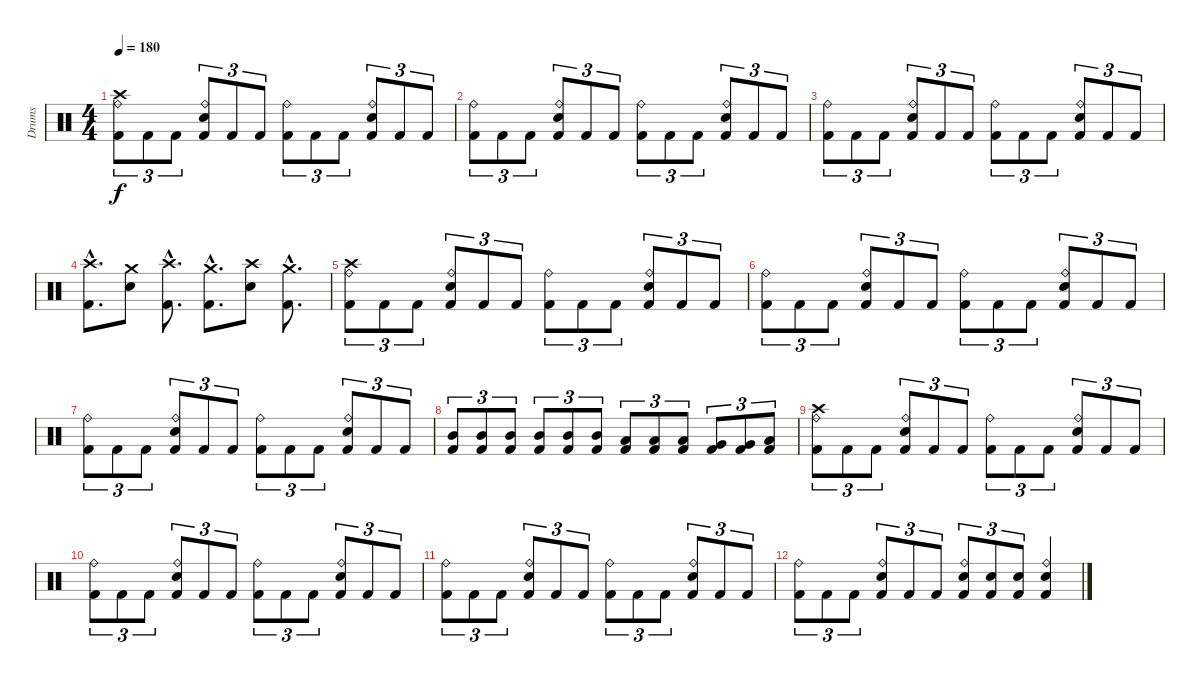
\track ("Drums" "Drums") {instrument percussion}
\staff {score}
\articulation defaults
\ts (4 4)
\tempo 180
\clef neutral
\ks c
("Kick (hit) 2" "Crash high (hit)" "Ride (bell)").8{tu (3 2) dy f} "Kick (hit) 2".8{tu (3 2)} "Kick (hit) 2".8{tu (3 2)} ("Kick (hit) 2" "Electric Snare (hit)" "Ride (bell)").8{tu (3 2)} "Kick (hit) 2".8{tu (3 2)} "Kick (hit) 2".8{tu (3 2)} ("Kick (hit) 2" "Ride (bell)").8{tu (3 2)} "Kick (hit) 2".8{tu (3 2)} "Kick (hit) 2".8{tu (3 2)} ("Kick (hit) 2" "Electric Snare (hit)" "Ride (bell)").8{tu (3 2)} "Kick (hit) 2".8{tu (3 2)} "Kick (hit) 2".8{tu (3 2)} |
("Kick (hit) 2" "Ride (bell)").8{tu (3 2)} "Kick (hit) 2".8{tu (3 2)} "Kick (hit) 2".8{tu (3 2)} ("Kick (hit) 2" "Electric Snare (hit)" "Ride (bell)").8{tu (3 2)} "Kick (hit) 2".8{tu (3 2)} "Kick (hit) 2".8{tu (3 2)} ("Kick (hit) 2" "Ride (bell)").8{tu (3 2)} "Kick (hit) 2".8{tu (3 2)} "Kick (hit) 2".8{tu (3 2)} ("Kick (hit) 2" "Electric Snare (hit)" "Ride (bell)").8{tu (3 2)} "Kick (hit) 2".8{tu (3 2)} "Kick (hit) 2".8{tu (3 2)} |
("Kick (hit) 2" "Ride (bell)").8{tu (3 2)} "Kick (hit) 2".8{tu (3 2)} "Kick (hit) 2".8{tu (3 2)} ("Kick (hit) 2" "Electric Snare (hit)" "Ride (bell)").8{tu (3 2)} "Kick (hit) 2".8{tu (3 2)} "Kick (hit) 2".8{tu (3 2)} ("Kick (hit) 2" "Ride (bell)").8{tu (3 2)} "Kick (hit) 2".8{tu (3 2)} "Kick (hit) 2".8{tu (3 2)} ("Kick (hit) 2" "Electric Snare (hit)" "Ride (bell)").8{tu (3 2)} "Kick (hit) 2".8{tu (3 2)} "Kick (hit) 2".8{tu (3 2)} |
("Crash high (hit)"{hac} "Kick (hit) 2"{hac}).8{d} ("Crash medium (hit)" "Electric Snare (hit)").8 ("Crash high (hit)"{hac} "Kick (hit) 2"{hac}).8{d} ("Crash medium (hit)"{hac} "Kick (hit) 2"{hac}).8{d} ("Crash high (hit)" "Electric Snare (hit)").8 ("Crash medium (hit)"{hac} "Kick (hit) 2"{hac}).8{d} |
("Kick (hit) 2" "Crash high (hit)" "Ride (bell)").8{tu (3 2)} "Kick (hit) 2".8{tu (3 2)} "Kick (hit) 2".8{tu (3 2)} ("Kick (hit) 2" "Electric Snare (hit)" "Ride (bell)").8{tu (3 2)} "Kick (hit) 2".8{tu (3 2)} "Kick (hit) 2".8{tu (3 2)} ("Kick (hit) 2" "Ride (bell)").8{tu (3 2)} "Kick (hit) 2".8{tu (3 2)} "Kick (hit) 2".8{tu (3 2)} ("Kick (hit) 2" "Electric Snare (hit)" "Ride (bell)").8{tu (3 2)} "Kick (hit) 2".8{tu (3 2)} "Kick (hit) 2".8{tu (3 2)} |
("Kick (hit) 2" "Ride (bell)").8{tu (3 2)} "Kick (hit) 2".8{tu (3 2)} "Kick (hit) 2".8{tu (3 2)} ("Kick (hit) 2" "Electric Snare (hit)" "Ride (bell)").8{tu (3 2)} "Kick (hit) 2".8{tu (3 2)} "Kick (hit) 2".8{tu (3 2)} ("Kick (hit) 2" "Ride (bell)").8{tu (3 2)} "Kick (hit) 2".8{tu (3 2)} "Kick (hit) 2".8{tu (3 2)} ("Kick (hit) 2" "Electric Snare (hit)" "Ride (bell)").8{tu (3 2)} "Kick (hit) 2".8{tu (3 2)} "Kick (hit) 2".8{tu (3 2)} |
("Kick (hit) 2" "Ride (bell)").8{tu (3 2)} "Kick (hit) 2".8{tu (3 2)} "Kick (hit) 2".8{tu (3 2)} ("Kick (hit) 2" "Electric Snare (hit)" "Ride (bell)").8{tu (3 2)} "Kick (hit) 2".8{tu (3 2)} "Kick (hit) 2".8{tu (3 2)} ("Kick (hit) 2" "Ride (bell)").8{tu (3 2)} "Kick (hit) 2".8{tu (3 2)} "Kick (hit) 2".8{tu (3 2)} ("Kick (hit) 2" "Electric Snare (hit)" "Ride (bell)").8{tu (3 2)} "Kick (hit) 2".8{tu (3 2)} "Kick (hit) 2".8{tu (3 2)} |
("Kick (hit) 2" "Mid Tom (hit)").8{tu (3 2)} ("Kick (hit) 2" "Mid Tom (hit)").8{tu (3 2)} ("Kick (hit) 2" "Mid Tom (hit)").8{tu (3 2)} ("Kick (hit) 2" "Mid Tom (hit)").8{tu (3 2)} ("Kick (hit) 2" "Mid Tom (hit)").8{tu (3 2)} ("Kick (hit) 2" "Mid Tom (hit)").8{tu (3 2)} ("Kick (hit) 2" "Low Tom (hit)").8{tu (3 2)} ("Kick (hit) 2" "Low Tom (hit)").8{tu (3 2)} ("Kick (hit) 2" "Low Tom (hit)").8{tu (3 2)} ("Kick (hit) 2" "Very Low Tom (hit)").8{tu (3 2)} ("Kick (hit) 2" "Very Low Tom (hit)").8{tu (3 2)} ("Kick (hit) 2" "Low Floor Tom (hit)").8{tu (3 2)} |
("Kick (hit) 2" "Crash high (hit)" "Ride (bell)").8{tu (3 2)} "Kick (hit) 2".8{tu (3 2)} "Kick (hit) 2".8{tu (3 2)} ("Kick (hit) 2" "Electric Snare (hit)" "Ride (bell)").8{tu (3 2)} "Kick (hit) 2".8{tu (3 2)} "Kick (hit) 2".8{tu (3 2)} ("Kick (hit) 2" "Ride (bell)").8{tu (3 2)} "Kick (hit) 2".8{tu (3 2)} "Kick (hit) 2".8{tu (3 2)} ("Kick (hit) 2" "Electric Snare (hit)" "Ride (bell)").8{tu (3 2)} "Kick (hit) 2".8{tu (3 2)} "Kick (hit) 2".8{tu (3 2)} |
("Kick (hit) 2" "Ride (bell)").8{tu (3 2)} "Kick (hit) 2".8{tu (3 2)} "Kick (hit) 2".8{tu (3 2)} ("Kick (hit) 2" "Electric Snare (hit)" "Ride (bell)").8{tu (3 2)} "Kick (hit) 2".8{tu (3 2)} "Kick (hit) 2".8{tu (3 2)} ("Kick (hit) 2" "Ride (bell)").8{tu (3 2)} "Kick (hit) 2".8{tu (3 2)} "Kick (hit) 2".8{tu (3 2)} ("Kick (hit) 2" "Electric Snare (hit)" "Ride (bell)").8{tu (3 2)} "Kick (hit) 2".8{tu (3 2)} "Kick (hit) 2".8{tu (3 2)} |
("Kick (hit) 2" "Ride (bell)").8{tu (3 2)} "Kick (hit) 2".8{tu (3 2)} "Kick (hit) 2".8{tu (3 2)} ("Kick (hit) 2" "Electric Snare (hit)" "Ride (bell)").8{tu (3 2)} "Kick (hit) 2".8{tu (3 2)} "Kick (hit) 2".8{tu (3 2)} ("Kick (hit) 2" "Ride (bell)").8{tu (3 2)} "Kick (hit) 2".8{tu (3 2)} "Kick (hit) 2".8{tu (3 2)} ("Kick (hit) 2" "Electric Snare (hit)" "Ride (bell)").8{tu (3 2)} "Kick (hit) 2".8{tu (3 2)} "Kick (hit) 2".8{tu (3 2)} |
("Kick (hit) 2" "Ride (bell)").8{tu (3 2)} "Kick (hit) 2".8{tu (3 2)} "Kick (hit) 2".8{tu (3 2)} ("Kick (hit) 2" "Electric Snare (hit)" "Ride (bell)").8{tu (3 2)} "Kick (hit) 2".8{tu (3 2)} "Kick (hit) 2".8{tu (3 2)} ("Kick (hit) 2" "Electric Snare (hit)" "Ride (bell)").8{tu (3 2)} ("Kick (hit) 2" "Electric Snare (hit)").8{tu (3 2)} ("Kick (hit) 2" "Electric Snare (hit)").8{tu (3 2)} ("Kick (hit) 2" "Electric Snare (hit)" "Ride (bell)").4
